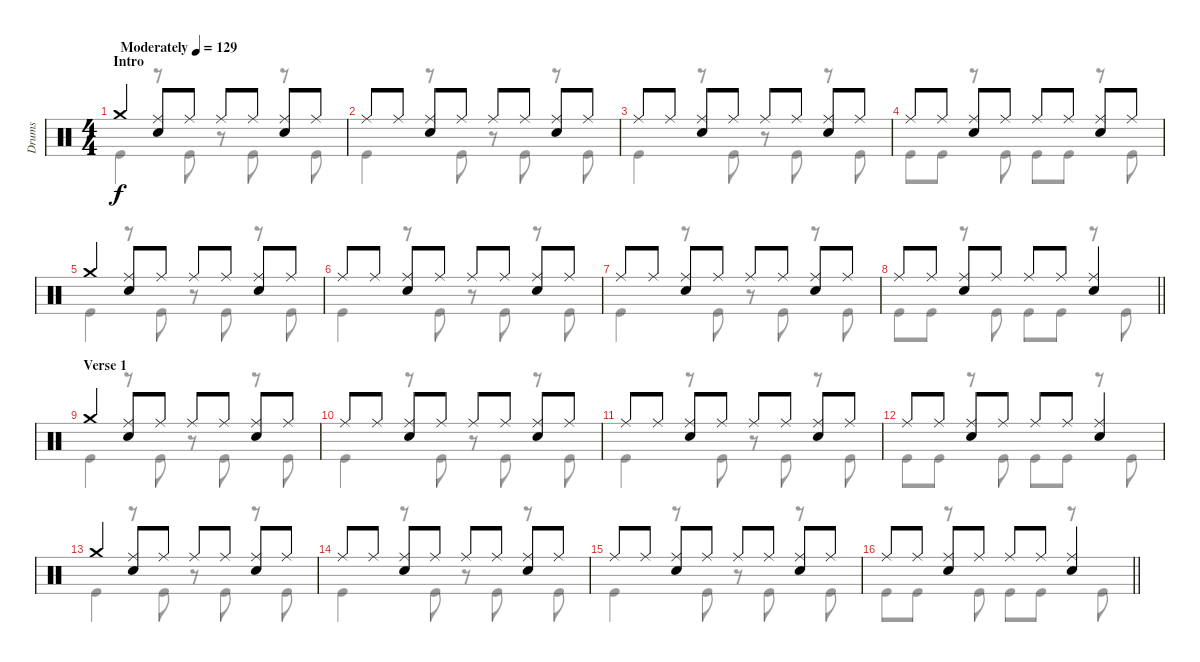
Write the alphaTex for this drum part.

\track ("Drums" "Drums") {instrument percussion}
\staff {score}
\articulation defaults
\voice
\ts (4 4)
\section ("" "Intro")
\tempo (129 "Moderately")
\clef neutral
\ks c "Crash medium (hit)".4{dy f}
("Ride (middle)" "Electric Snare (hit)").8 "Ride (middle)".8 "Ride (middle)".8 "Ride (middle)".8 ("Ride (middle)" "Electric Snare (hit)").8 "Ride (middle)".8 |
"Ride (middle)".8 "Ride (middle)".8 ("Ride (middle)" "Electric Snare (hit)").8 "Ride (middle)".8 "Ride (middle)".8 "Ride (middle)".8 ("Ride (middle)" "Electric Snare (hit)").8 "Ride (middle)".8 |
"Ride (middle)".8 "Ride (middle)".8 ("Ride (middle)" "Electric Snare (hit)").8 "Ride (middle)".8 "Ride (middle)".8 "Ride (middle)".8 ("Ride (middle)" "Electric Snare (hit)").8 "Ride (middle)".8 |
"Ride (middle)".8 "Ride (middle)".8 ("Ride (middle)" "Electric Snare (hit)").8 "Ride (middle)".8 "Ride (middle)".8 "Ride (middle)".8 ("Ride (middle)" "Electric Snare (hit)").8 "Ride (middle)".8 |
"Crash medium (hit)".4 ("Ride (middle)" "Electric Snare (hit)").8 "Ride (middle)".8 "Ride (middle)".8 "Ride (middle)".8 ("Ride (middle)" "Electric Snare (hit)").8 "Ride (middle)".8 |
"Ride (middle)".8 "Ride (middle)".8 ("Ride (middle)" "Electric Snare (hit)").8 "Ride (middle)".8 "Ride (middle)".8 "Ride (middle)".8 ("Ride (middle)" "Electric Snare (hit)").8 "Ride (middle)".8 |
"Ride (middle)".8 "Ride (middle)".8 ("Ride (middle)" "Electric Snare (hit)").8 "Ride (middle)".8 "Ride (middle)".8 "Ride (middle)".8 ("Ride (middle)" "Electric Snare (hit)").8 "Ride (middle)".8 |
\barLineRight lightlight "Ride (middle)".8 "Ride (middle)".8
("Ride (middle)" "Electric Snare (hit)").8 "Ride (middle)".8 "Ride (middle)".8 "Ride (middle)".8 ("Ride (middle)" "Electric Snare (hit)").4 |
\section ("" "Verse 1")
"Crash medium (hit)".4 ("Ride (middle)" "Electric Snare (hit)").8 "Ride (middle)".8 "Ride (middle)".8 "Ride (middle)".8 ("Ride (middle)" "Electric Snare (hit)").8 "Ride (middle)".8 |
"Ride (middle)".8 "Ride (middle)".8 ("Ride (middle)" "Electric Snare (hit)").8 "Ride (middle)".8 "Ride (middle)".8 "Ride (middle)".8 ("Ride (middle)" "Electric Snare (hit)").8 "Ride (middle)".8 |
"Ride (middle)".8 "Ride (middle)".8 ("Ride (middle)" "Electric Snare (hit)").8 "Ride (middle)".8 "Ride (middle)".8 "Ride (middle)".8 ("Ride (middle)" "Electric Snare (hit)").8 "Ride (middle)".8 |
"Ride (middle)".8 "Ride (middle)".8 ("Ride (middle)" "Electric Snare (hit)").8 "Ride (middle)".8 "Ride (middle)".8 "Ride (middle)".8 ("Ride (middle)" "Electric Snare (hit)").4 |
"Crash medium (hit)".4 ("Ride (middle)" "Electric Snare (hit)").8 "Ride (middle)".8 "Ride (middle)".8 "Ride (middle)".8 ("Ride (middle)" "Electric Snare (hit)").8 "Ride (middle)".8 |
"Ride (middle)".8 "Ride (middle)".8 ("Ride (middle)" "Electric Snare (hit)").8 "Ride (middle)".8 "Ride (middle)".8 "Ride (middle)".8 ("Ride (middle)" "Electric Snare (hit)").8 "Ride (middle)".8 |
"Ride (middle)".8 "Ride (middle)".8 ("Ride (middle)" "Electric Snare (hit)").8 "Ride (middle)".8 "Ride (middle)".8 "Ride (middle)".8 ("Ride (middle)" "Electric Snare (hit)").8 "Ride (middle)".8 |
\barLineRight lightlight "Ride (middle)".8 "Ride (middle)".8
("Ride (middle)" "Electric Snare (hit)").8 "Ride (middle)".8 "Ride (middle)".8 "Ride (middle)".8 ("Ride (middle)" "Electric Snare (hit)").4
\voice
\clef neutral
\ottava regular
\simile none
\ks c "Kick (hit)".4{dy f}
r.8 "Kick (hit)".8 r.8 "Kick (hit)".8 r.8 "Kick (hit)".8 |
"Kick (hit)".4 r.8 "Kick (hit)".8 r.8 "Kick (hit)".8 r.8 "Kick (hit)".8 |
"Kick (hit)".4 r.8 "Kick (hit)".8 r.8 "Kick (hit)".8 r.8 "Kick (hit)".8 |
"Kick (hit)".8 "Kick (hit)".8 r.8 "Kick (hit)".8 "Kick (hit)".8 "Kick (hit)".8 r.8 "Kick (hit)".8 |
"Kick (hit)".4 r.8 "Kick (hit)".8 r.8 "Kick (hit)".8 r.8 "Kick (hit)".8 |
"Kick (hit)".4 r.8 "Kick (hit)".8 r.8 "Kick (hit)".8 r.8 "Kick (hit)".8 |
"Kick (hit)".4 r.8 "Kick (hit)".8 r.8 "Kick (hit)".8 r.8 "Kick (hit)".8 |
\barLineRight lightlight "Kick (hit)".8 "Kick (hit)".8
r.8 "Kick (hit)".8 "Kick (hit)".8 "Kick (hit)".8 r.8 "Kick (hit)".8 |
"Kick (hit)".4 r.8 "Kick (hit)".8 r.8 "Kick (hit)".8 r.8 "Kick (hit)".8 |
"Kick (hit)".4 r.8 "Kick (hit)".8 r.8 "Kick (hit)".8 r.8 "Kick (hit)".8 |
"Kick (hit)".4 r.8 "Kick (hit)".8 r.8 "Kick (hit)".8 r.8 "Kick (hit)".8 |
"Kick (hit)".8 "Kick (hit)".8 r.8 "Kick (hit)".8 "Kick (hit)".8 "Kick (hit)".8 r.8 "Kick (hit)".8 |
"Kick (hit)".4 r.8 "Kick (hit)".8 r.8 "Kick (hit)".8 r.8 "Kick (hit)".8 |
"Kick (hit)".4 r.8 "Kick (hit)".8 r.8 "Kick (hit)".8 r.8 "Kick (hit)".8 |
"Kick (hit)".4 r.8 "Kick (hit)".8 r.8 "Kick (hit)".8 r.8 "Kick (hit)".8 |
\barLineRight lightlight "Kick (hit)".8 "Kick (hit)".8
r.8 "Kick (hit)".8 "Kick (hit)".8 "Kick (hit)".8 r.8 "Kick (hit)".8
